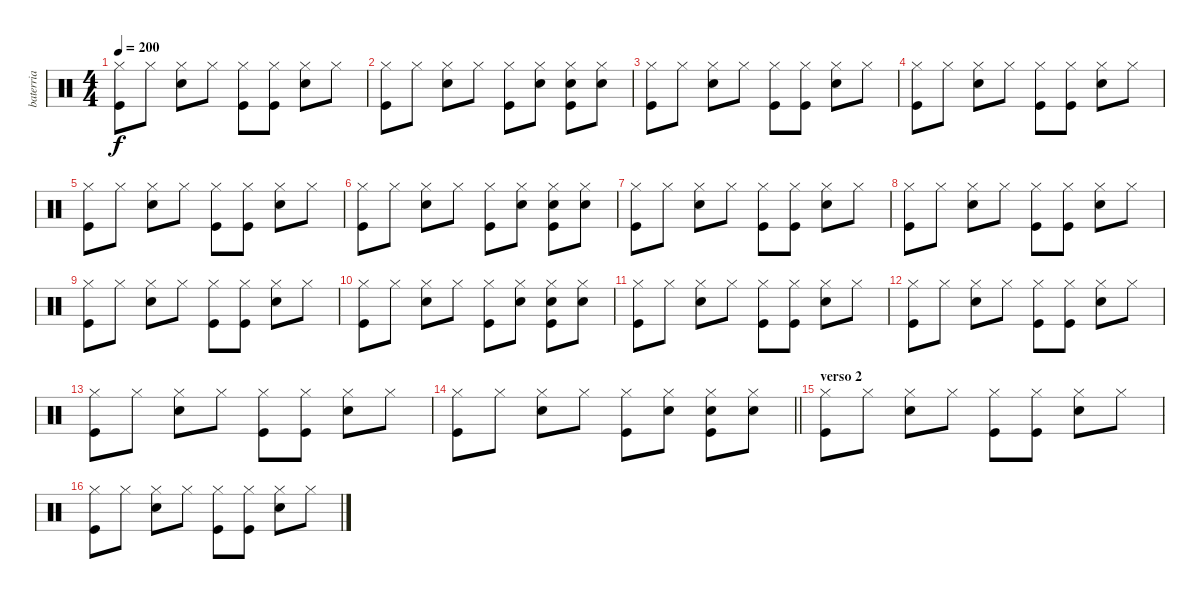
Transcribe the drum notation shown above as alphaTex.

\track ("baterria" "baterria") {instrument percussion}
\staff {score}
\articulation defaults
\ts (4 4)
\tempo 200
\clef neutral
\ks c
("Hi-Hat (closed)" "Kick (hit)").8{dy f} "Hi-Hat (closed)".8 ("Hi-Hat (closed)" "Electric Snare (hit)").8 "Hi-Hat (closed)".8 ("Hi-Hat (closed)" "Kick (hit)").8 ("Hi-Hat (closed)" "Kick (hit)").8 ("Hi-Hat (closed)" "Electric Snare (hit)").8 "Hi-Hat (closed)".8 |
("Hi-Hat (closed)" "Kick (hit)").8 "Hi-Hat (closed)".8 ("Hi-Hat (closed)" "Electric Snare (hit)").8 "Hi-Hat (closed)".8 ("Hi-Hat (closed)" "Kick (hit)").8 ("Hi-Hat (closed)" "Electric Snare (hit)").8 ("Hi-Hat (closed)" "Electric Snare (hit)" "Kick (hit)").8 ("Hi-Hat (closed)" "Electric Snare (hit)").8 |
("Hi-Hat (closed)" "Kick (hit)").8 "Hi-Hat (closed)".8 ("Hi-Hat (closed)" "Electric Snare (hit)").8 "Hi-Hat (closed)".8 ("Hi-Hat (closed)" "Kick (hit)").8 ("Hi-Hat (closed)" "Kick (hit)").8 ("Hi-Hat (closed)" "Electric Snare (hit)").8 "Hi-Hat (closed)".8 |
("Hi-Hat (closed)" "Kick (hit)").8 "Hi-Hat (closed)".8 ("Hi-Hat (closed)" "Electric Snare (hit)").8 "Hi-Hat (closed)".8 ("Hi-Hat (closed)" "Kick (hit)").8 ("Hi-Hat (closed)" "Kick (hit)").8 ("Hi-Hat (closed)" "Electric Snare (hit)").8 "Hi-Hat (closed)".8 |
("Hi-Hat (closed)" "Kick (hit)").8 "Hi-Hat (closed)".8 ("Hi-Hat (closed)" "Electric Snare (hit)").8 "Hi-Hat (closed)".8 ("Hi-Hat (closed)" "Kick (hit)").8 ("Hi-Hat (closed)" "Kick (hit)").8 ("Hi-Hat (closed)" "Electric Snare (hit)").8 "Hi-Hat (closed)".8 |
("Hi-Hat (closed)" "Kick (hit)").8 "Hi-Hat (closed)".8 ("Hi-Hat (closed)" "Electric Snare (hit)").8 "Hi-Hat (closed)".8 ("Hi-Hat (closed)" "Kick (hit)").8 ("Hi-Hat (closed)" "Electric Snare (hit)").8 ("Hi-Hat (closed)" "Electric Snare (hit)" "Kick (hit)").8 ("Hi-Hat (closed)" "Electric Snare (hit)").8 |
("Hi-Hat (closed)" "Kick (hit)").8 "Hi-Hat (closed)".8 ("Hi-Hat (closed)" "Electric Snare (hit)").8 "Hi-Hat (closed)".8 ("Hi-Hat (closed)" "Kick (hit)").8 ("Hi-Hat (closed)" "Kick (hit)").8 ("Hi-Hat (closed)" "Electric Snare (hit)").8 "Hi-Hat (closed)".8 |
("Hi-Hat (closed)" "Kick (hit)").8 "Hi-Hat (closed)".8 ("Hi-Hat (closed)" "Electric Snare (hit)").8 "Hi-Hat (closed)".8 ("Hi-Hat (closed)" "Kick (hit)").8 ("Hi-Hat (closed)" "Kick (hit)").8 ("Hi-Hat (closed)" "Electric Snare (hit)").8 "Hi-Hat (closed)".8 |
("Hi-Hat (closed)" "Kick (hit)").8 "Hi-Hat (closed)".8 ("Hi-Hat (closed)" "Electric Snare (hit)").8 "Hi-Hat (closed)".8 ("Hi-Hat (closed)" "Kick (hit)").8 ("Hi-Hat (closed)" "Kick (hit)").8 ("Hi-Hat (closed)" "Electric Snare (hit)").8 "Hi-Hat (closed)".8 |
("Hi-Hat (closed)" "Kick (hit)").8 "Hi-Hat (closed)".8 ("Hi-Hat (closed)" "Electric Snare (hit)").8 "Hi-Hat (closed)".8 ("Hi-Hat (closed)" "Kick (hit)").8 ("Hi-Hat (closed)" "Electric Snare (hit)").8 ("Hi-Hat (closed)" "Electric Snare (hit)" "Kick (hit)").8 ("Hi-Hat (closed)" "Electric Snare (hit)").8 |
("Hi-Hat (closed)" "Kick (hit)").8 "Hi-Hat (closed)".8 ("Hi-Hat (closed)" "Electric Snare (hit)").8 "Hi-Hat (closed)".8 ("Hi-Hat (closed)" "Kick (hit)").8 ("Hi-Hat (closed)" "Kick (hit)").8 ("Hi-Hat (closed)" "Electric Snare (hit)").8 "Hi-Hat (closed)".8 |
("Hi-Hat (closed)" "Kick (hit)").8 "Hi-Hat (closed)".8 ("Hi-Hat (closed)" "Electric Snare (hit)").8 "Hi-Hat (closed)".8 ("Hi-Hat (closed)" "Kick (hit)").8 ("Hi-Hat (closed)" "Kick (hit)").8 ("Hi-Hat (closed)" "Electric Snare (hit)").8 "Hi-Hat (closed)".8 |
("Hi-Hat (closed)" "Kick (hit)").8 "Hi-Hat (closed)".8 ("Hi-Hat (closed)" "Electric Snare (hit)").8 "Hi-Hat (closed)".8 ("Hi-Hat (closed)" "Kick (hit)").8 ("Hi-Hat (closed)" "Kick (hit)").8 ("Hi-Hat (closed)" "Electric Snare (hit)").8 "Hi-Hat (closed)".8 |
\barLineRight lightlight
("Hi-Hat (closed)" "Kick (hit)").8 "Hi-Hat (closed)".8 ("Hi-Hat (closed)" "Electric Snare (hit)").8 "Hi-Hat (closed)".8 ("Hi-Hat (closed)" "Kick (hit)").8 ("Hi-Hat (closed)" "Electric Snare (hit)").8 ("Hi-Hat (closed)" "Electric Snare (hit)" "Kick (hit)").8 ("Hi-Hat (closed)" "Electric Snare (hit)").8 |
\section ("" "verso 2")
("Hi-Hat (closed)" "Kick (hit)").8 "Hi-Hat (closed)".8 ("Hi-Hat (closed)" "Electric Snare (hit)").8 "Hi-Hat (closed)".8 ("Hi-Hat (closed)" "Kick (hit)").8 ("Hi-Hat (closed)" "Kick (hit)").8 ("Hi-Hat (closed)" "Electric Snare (hit)").8 "Hi-Hat (closed)".8 |
("Hi-Hat (closed)" "Kick (hit)").8 "Hi-Hat (closed)".8 ("Hi-Hat (closed)" "Electric Snare (hit)").8 "Hi-Hat (closed)".8 ("Hi-Hat (closed)" "Kick (hit)").8 ("Hi-Hat (closed)" "Kick (hit)").8 ("Hi-Hat (closed)" "Electric Snare (hit)").8 "Hi-Hat (closed)".8
